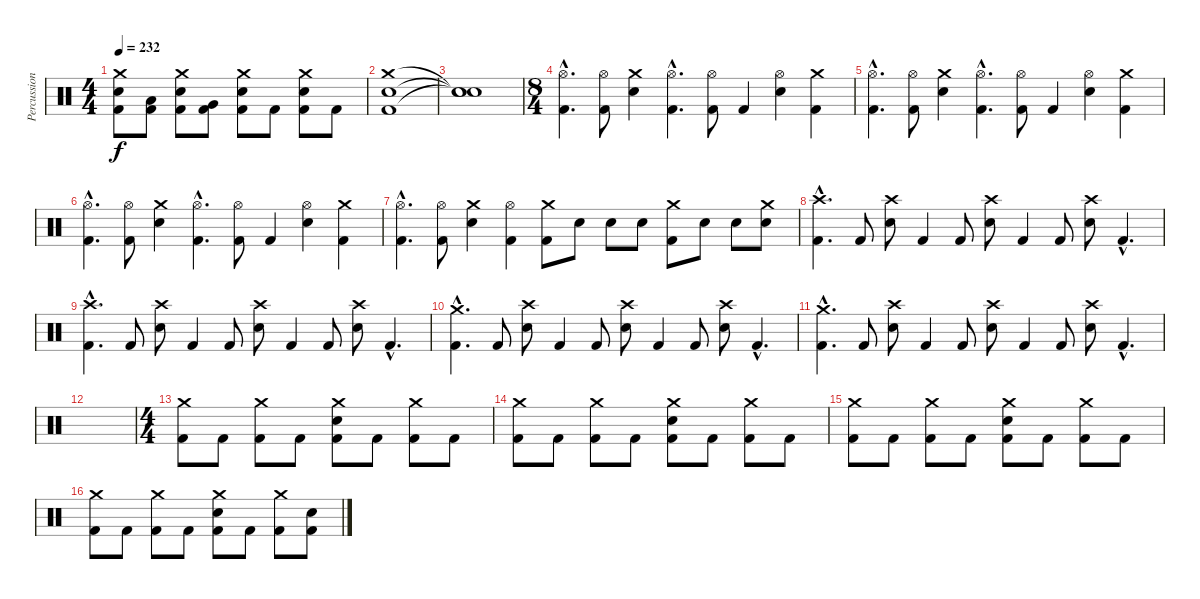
\track ("Percussions" "Percussion") {instrument percussion}
\staff {score}
\articulation defaults
\ts (4 4)
\tempo 232
\clef neutral
\ks c
("Crash medium (hit)" "Electric Snare (hit)" "Kick (hit) 2").8{dy f} ("Low Tom (hit)" "Kick (hit) 2").8 ("Crash medium (hit)" "Electric Snare (hit)" "Kick (hit) 2").8 ("Very Low Tom (hit)" "Kick (hit) 2").8 ("Crash medium (hit)" "Electric Snare (hit)" "Kick (hit) 2").8 "Kick (hit) 2".8 ("Crash medium (hit)" "Electric Snare (hit)" "Kick (hit) 2").8 "Kick (hit) 2".8 |
("Crash medium (hit)" "Electric Snare (hit)" "Kick (hit) 2").1 |
("Snare (hit)"{t} "Snare (hit)"{t} "Snare (hit)"{t}).1 |
\ts (8 4)
("Hi-Hat (open)"{hac} "Kick (hit) 2"{hac}).4{d} ("Hi-Hat (open)" "Kick (hit) 2").8 ("Crash medium (hit)" "Electric Snare (hit)").4 ("Hi-Hat (open)"{hac} "Kick (hit) 2"{hac}).4{d} ("Hi-Hat (open)" "Kick (hit) 2").8 "Kick (hit) 2".4 ("Hi-Hat (open)" "Electric Snare (hit)").4 ("Crash medium (hit)" "Kick (hit) 2").4 |
("Hi-Hat (open)"{hac} "Kick (hit) 2"{hac}).4{d} ("Hi-Hat (open)" "Kick (hit) 2").8 ("Crash medium (hit)" "Electric Snare (hit)").4 ("Hi-Hat (open)"{hac} "Kick (hit) 2"{hac}).4{d} ("Hi-Hat (open)" "Kick (hit) 2").8 "Kick (hit) 2".4 ("Hi-Hat (open)" "Electric Snare (hit)").4 ("Crash medium (hit)" "Kick (hit) 2").4 |
("Hi-Hat (open)"{hac} "Kick (hit) 2"{hac}).4{d} ("Hi-Hat (open)" "Kick (hit) 2").8 ("Crash medium (hit)" "Electric Snare (hit)").4 ("Hi-Hat (open)"{hac} "Kick (hit) 2"{hac}).4{d} ("Hi-Hat (open)" "Kick (hit) 2").8 "Kick (hit) 2".4 ("Hi-Hat (open)" "Electric Snare (hit)").4 ("Crash medium (hit)" "Kick (hit) 2").4 |
("Hi-Hat (open)"{hac} "Kick (hit) 2"{hac}).4{d} ("Hi-Hat (open)" "Kick (hit) 2").8 ("Crash medium (hit)" "Electric Snare (hit)").4 ("Hi-Hat (open)" "Kick (hit) 2").4 ("Crash medium (hit)" "Kick (hit) 2").8 "Electric Snare (hit)".8 "Electric Snare (hit)".8 "Electric Snare (hit)".8 ("Crash medium (hit)" "Kick (hit) 2").8 "Electric Snare (hit)".8 "Electric Snare (hit)".8 ("Crash medium (hit)" "Electric Snare (hit)").8 |
("Crash high (hit)"{hac} "Kick (hit) 2"{hac}).4{d} "Kick (hit) 2".8 ("Crash high (hit)" "Electric Snare (hit)").8 "Kick (hit) 2".4 "Kick (hit) 2".8 ("Crash high (hit)" "Electric Snare (hit)").8 "Kick (hit) 2".4 "Kick (hit) 2".8 ("Crash high (hit)" "Electric Snare (hit)").8 "Kick (hit) 2"{hac}.4{d} |
("Crash high (hit)"{hac} "Kick (hit) 2"{hac}).4{d} "Kick (hit) 2".8 ("Crash high (hit)" "Electric Snare (hit)").8 "Kick (hit) 2".4 "Kick (hit) 2".8 ("Crash high (hit)" "Electric Snare (hit)").8 "Kick (hit) 2".4 "Kick (hit) 2".8 ("Crash high (hit)" "Electric Snare (hit)").8 "Kick (hit) 2"{hac}.4{d} |
("Crash medium (hit)"{hac} "Kick (hit) 2"{hac}).4{d} "Kick (hit) 2".8 ("Crash high (hit)" "Electric Snare (hit)").8 "Kick (hit) 2".4 "Kick (hit) 2".8 ("Crash high (hit)" "Electric Snare (hit)").8 "Kick (hit) 2".4 "Kick (hit) 2".8 ("Crash high (hit)" "Electric Snare (hit)").8 "Kick (hit) 2"{hac}.4{d} |
("Crash medium (hit)"{hac} "Kick (hit) 2"{hac}).4{d} "Kick (hit) 2".8 ("Crash high (hit)" "Electric Snare (hit)").8 "Kick (hit) 2".4 "Kick (hit) 2".8 ("Crash high (hit)" "Electric Snare (hit)").8 "Kick (hit) 2".4 "Kick (hit) 2".8 ("Crash high (hit)" "Electric Snare (hit)").8 "Kick (hit) 2"{hac}.4{d} |
|
\ts (4 4)
("Crash medium (hit)" "Kick (hit) 2").8 "Kick (hit) 2".8 ("Crash medium (hit)" "Kick (hit) 2").8 "Kick (hit) 2".8 ("Crash medium (hit)" "Electric Snare (hit)" "Kick (hit) 2").8 "Kick (hit) 2".8 ("Crash medium (hit)" "Kick (hit) 2").8 "Kick (hit) 2".8 |
("Crash medium (hit)" "Kick (hit) 2").8 "Kick (hit) 2".8 ("Crash medium (hit)" "Kick (hit) 2").8 "Kick (hit) 2".8 ("Crash medium (hit)" "Electric Snare (hit)" "Kick (hit) 2").8 "Kick (hit) 2".8 ("Crash medium (hit)" "Kick (hit) 2").8 "Kick (hit) 2".8 |
("Crash medium (hit)" "Kick (hit) 2").8 "Kick (hit) 2".8 ("Crash medium (hit)" "Kick (hit) 2").8 "Kick (hit) 2".8 ("Crash medium (hit)" "Electric Snare (hit)" "Kick (hit) 2").8 "Kick (hit) 2".8 ("Crash medium (hit)" "Kick (hit) 2").8 "Kick (hit) 2".8 |
("Crash medium (hit)" "Kick (hit) 2").8 "Kick (hit) 2".8 ("Crash medium (hit)" "Kick (hit) 2").8 "Kick (hit) 2".8 ("Crash medium (hit)" "Electric Snare (hit)" "Kick (hit) 2").8 "Kick (hit) 2".8 ("Crash medium (hit)" "Kick (hit) 2").8 ("Electric Snare (hit)" "Kick (hit) 2").8
